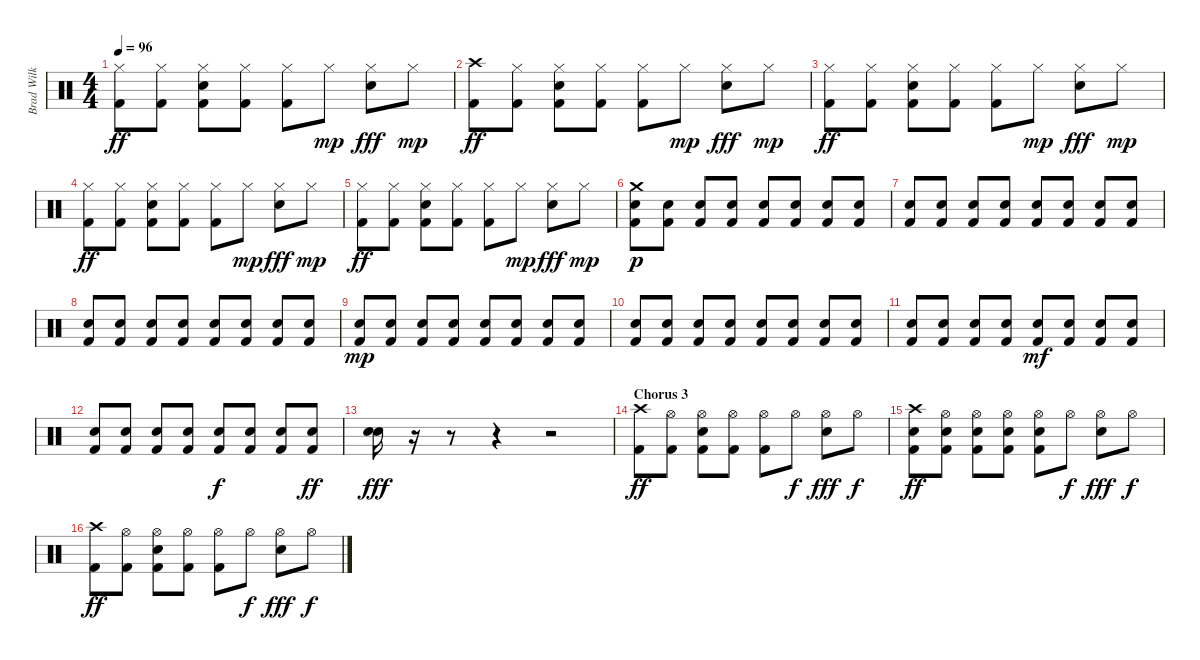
\track ("Brad Wilk / Drums" "Brad Wilk ") {instrument percussion}
\staff {score}
\articulation defaults
\ts (4 4)
\tempo 96
\clef neutral
\ks c
("Hi-Hat (closed)" "Kick (hit) 2").8{dy ff} ("Hi-Hat (closed)" "Kick (hit) 2").8 ("Hi-Hat (closed)" "Electric Snare (hit)" "Kick (hit) 2").8 ("Hi-Hat (closed)" "Kick (hit) 2").8 ("Hi-Hat (closed)" "Kick (hit) 2").8 "Hi-Hat (closed)".8{dy mp} ("Hi-Hat (closed)" "Electric Snare (hit)").8{dy fff} "Hi-Hat (closed)".8{dy mp} |
("Crash high (hit)" "Kick (hit) 2").8{dy ff} ("Hi-Hat (closed)" "Kick (hit) 2").8 ("Hi-Hat (closed)" "Electric Snare (hit)" "Kick (hit) 2").8 ("Hi-Hat (closed)" "Kick (hit) 2").8 ("Hi-Hat (closed)" "Kick (hit) 2").8 "Hi-Hat (closed)".8{dy mp} ("Hi-Hat (closed)" "Electric Snare (hit)").8{dy fff} "Hi-Hat (closed)".8{dy mp} |
("Hi-Hat (closed)" "Kick (hit) 2").8{dy ff} ("Hi-Hat (closed)" "Kick (hit) 2").8 ("Hi-Hat (closed)" "Electric Snare (hit)" "Kick (hit) 2").8 ("Hi-Hat (closed)" "Kick (hit) 2").8 ("Hi-Hat (closed)" "Kick (hit) 2").8 "Hi-Hat (closed)".8{dy mp} ("Hi-Hat (closed)" "Electric Snare (hit)").8{dy fff} "Hi-Hat (closed)".8{dy mp} |
("Hi-Hat (closed)" "Kick (hit) 2").8{dy ff} ("Hi-Hat (closed)" "Kick (hit) 2").8 ("Hi-Hat (closed)" "Electric Snare (hit)" "Kick (hit) 2").8 ("Hi-Hat (closed)" "Kick (hit) 2").8 ("Hi-Hat (closed)" "Kick (hit) 2").8 "Hi-Hat (closed)".8{dy mp} ("Hi-Hat (closed)" "Electric Snare (hit)").8{dy fff} "Hi-Hat (closed)".8{dy mp} |
("Hi-Hat (closed)" "Kick (hit) 2").8{dy ff} ("Hi-Hat (closed)" "Kick (hit) 2").8 ("Hi-Hat (closed)" "Electric Snare (hit)" "Kick (hit) 2").8 ("Hi-Hat (closed)" "Kick (hit) 2").8 ("Hi-Hat (closed)" "Kick (hit) 2").8 "Hi-Hat (closed)".8{dy mp} ("Hi-Hat (closed)" "Electric Snare (hit)").8{dy fff} "Hi-Hat (closed)".8{dy mp} |
("Crash medium (hit)" "Electric Snare (hit)" "Kick (hit) 2").8{dy p} ("Electric Snare (hit)" "Kick (hit) 2").8 ("Electric Snare (hit)" "Kick (hit) 2").8 ("Electric Snare (hit)" "Kick (hit) 2").8 ("Electric Snare (hit)" "Kick (hit) 2").8 ("Electric Snare (hit)" "Kick (hit) 2").8 ("Electric Snare (hit)" "Kick (hit) 2").8 ("Electric Snare (hit)" "Kick (hit) 2").8 |
("Electric Snare (hit)" "Kick (hit) 2").8 ("Electric Snare (hit)" "Kick (hit) 2").8 ("Electric Snare (hit)" "Kick (hit) 2").8 ("Electric Snare (hit)" "Kick (hit) 2").8 ("Electric Snare (hit)" "Kick (hit) 2").8 ("Electric Snare (hit)" "Kick (hit) 2").8 ("Electric Snare (hit)" "Kick (hit) 2").8 ("Electric Snare (hit)" "Kick (hit) 2").8 |
("Electric Snare (hit)" "Kick (hit) 2").8 ("Electric Snare (hit)" "Kick (hit) 2").8 ("Electric Snare (hit)" "Kick (hit) 2").8 ("Electric Snare (hit)" "Kick (hit) 2").8 ("Electric Snare (hit)" "Kick (hit) 2").8 ("Electric Snare (hit)" "Kick (hit) 2").8 ("Electric Snare (hit)" "Kick (hit) 2").8 ("Electric Snare (hit)" "Kick (hit) 2").8 |
("Electric Snare (hit)" "Kick (hit) 2").8{dy mp} ("Electric Snare (hit)" "Kick (hit) 2").8 ("Electric Snare (hit)" "Kick (hit) 2").8 ("Electric Snare (hit)" "Kick (hit) 2").8 ("Electric Snare (hit)" "Kick (hit) 2").8 ("Electric Snare (hit)" "Kick (hit) 2").8 ("Electric Snare (hit)" "Kick (hit) 2").8 ("Electric Snare (hit)" "Kick (hit) 2").8 |
("Electric Snare (hit)" "Kick (hit) 2").8 ("Electric Snare (hit)" "Kick (hit) 2").8 ("Electric Snare (hit)" "Kick (hit) 2").8 ("Electric Snare (hit)" "Kick (hit) 2").8 ("Electric Snare (hit)" "Kick (hit) 2").8 ("Electric Snare (hit)" "Kick (hit) 2").8 ("Electric Snare (hit)" "Kick (hit) 2").8 ("Electric Snare (hit)" "Kick (hit) 2").8 |
("Electric Snare (hit)" "Kick (hit) 2").8 ("Electric Snare (hit)" "Kick (hit) 2").8 ("Electric Snare (hit)" "Kick (hit) 2").8 ("Electric Snare (hit)" "Kick (hit) 2").8 ("Electric Snare (hit)" "Kick (hit) 2").8{dy mf} ("Electric Snare (hit)" "Kick (hit) 2").8 ("Electric Snare (hit)" "Kick (hit) 2").8 ("Electric Snare (hit)" "Kick (hit) 2").8 |
("Electric Snare (hit)" "Kick (hit) 2").8 ("Electric Snare (hit)" "Kick (hit) 2").8 ("Electric Snare (hit)" "Kick (hit) 2").8 ("Electric Snare (hit)" "Kick (hit) 2").8 ("Electric Snare (hit)" "Kick (hit) 2").8{dy f} ("Electric Snare (hit)" "Kick (hit) 2").8 ("Electric Snare (hit)" "Kick (hit) 2").8 ("Electric Snare (hit)" "Kick (hit) 2").8{dy ff} |
("Electric Snare (hit)" "Electric Snare (hit)").16{dy fff} r.16 r.8 r.4 r.2 |
\section ("" "Chorus 3")
("Crash high (hit)" "Kick (hit) 2").8{dy ff} ("Hi-Hat (open)" "Kick (hit) 2").8 ("Hi-Hat (open)" "Electric Snare (hit)" "Kick (hit) 2").8 ("Hi-Hat (open)" "Kick (hit) 2").8 ("Hi-Hat (open)" "Kick (hit) 2").8 "Hi-Hat (open)".8{dy f} ("Hi-Hat (open)" "Electric Snare (hit)").8{dy fff} "Hi-Hat (open)".8{dy f} |
("Crash high (hit)" "Electric Snare (hit)" "Kick (hit) 2").8{dy ff} ("Hi-Hat (open)" "Electric Snare (hit)" "Kick (hit) 2").8 ("Hi-Hat (open)" "Electric Snare (hit)" "Kick (hit) 2").8 ("Hi-Hat (open)" "Electric Snare (hit)" "Kick (hit) 2").8 ("Hi-Hat (open)" "Electric Snare (hit)" "Kick (hit) 2").8 "Hi-Hat (open)".8{dy f} ("Hi-Hat (open)" "Electric Snare (hit)").8{dy fff} "Hi-Hat (open)".8{dy f} |
("Crash high (hit)" "Kick (hit) 2").8{dy ff} ("Hi-Hat (open)" "Kick (hit) 2").8 ("Hi-Hat (open)" "Electric Snare (hit)" "Kick (hit) 2").8 ("Hi-Hat (open)" "Kick (hit) 2").8 ("Hi-Hat (open)" "Kick (hit) 2").8 "Hi-Hat (open)".8{dy f} ("Hi-Hat (open)" "Electric Snare (hit)").8{dy fff} "Hi-Hat (open)".8{dy f}
